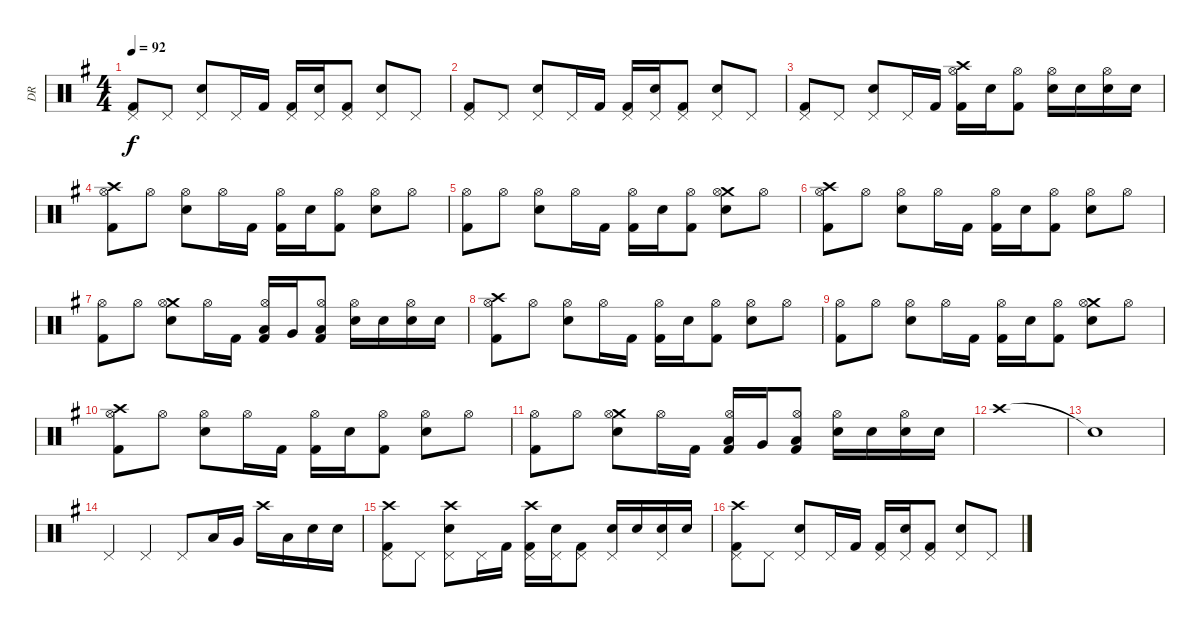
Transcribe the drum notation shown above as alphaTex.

\track ("DR" "DR") {instrument percussion}
\staff {score}
\articulation defaults
\ts (4 4)
\tempo 92
\clef neutral
\ks g
("Pedal Hi-Hat (hit)" "Kick (hit) 2").8{dy f} "Pedal Hi-Hat (hit)".8 ("Pedal Hi-Hat (hit)" "Electric Snare (hit)").8 "Pedal Hi-Hat (hit)".16 "Kick (hit) 2".16 ("Pedal Hi-Hat (hit)" "Kick (hit) 2").16 ("Pedal Hi-Hat (hit)" "Electric Snare (hit)").16 ("Pedal Hi-Hat (hit)" "Kick (hit) 2").8 ("Pedal Hi-Hat (hit)" "Electric Snare (hit)").8 "Pedal Hi-Hat (hit)".8 |
("Pedal Hi-Hat (hit)" "Kick (hit) 2").8 "Pedal Hi-Hat (hit)".8 ("Pedal Hi-Hat (hit)" "Electric Snare (hit)").8 "Pedal Hi-Hat (hit)".16 "Kick (hit) 2".16 ("Pedal Hi-Hat (hit)" "Kick (hit) 2").16 ("Pedal Hi-Hat (hit)" "Electric Snare (hit)").16 ("Pedal Hi-Hat (hit)" "Kick (hit) 2").8 ("Pedal Hi-Hat (hit)" "Electric Snare (hit)").8 "Pedal Hi-Hat (hit)".8 |
("Pedal Hi-Hat (hit)" "Kick (hit) 2").8 "Pedal Hi-Hat (hit)".8 ("Pedal Hi-Hat (hit)" "Electric Snare (hit)").8 "Pedal Hi-Hat (hit)".16 "Kick (hit) 2".16 ("Crash high (hit)" "Hi-Hat (open)" "Kick (hit) 2").16 "Electric Snare (hit)".16 ("Hi-Hat (open)" "Kick (hit) 2").8 ("Hi-Hat (open)" "Electric Snare (hit)").16 "Electric Snare (hit)".16 ("Hi-Hat (open)" "Electric Snare (hit)").16 "Electric Snare (hit)".16 |
("Crash high (hit)" "Hi-Hat (open)" "Kick (hit) 2").8 "Hi-Hat (open)".8 ("Hi-Hat (open)" "Electric Snare (hit)").8 "Hi-Hat (open)".16 "Kick (hit) 2".16 ("Hi-Hat (open)" "Kick (hit) 2").16 "Electric Snare (hit)".16 ("Hi-Hat (open)" "Kick (hit) 2").8 ("Hi-Hat (open)" "Electric Snare (hit)").8 "Hi-Hat (open)".8 |
("Hi-Hat (open)" "Kick (hit) 2").8 "Hi-Hat (open)".8 ("Hi-Hat (open)" "Electric Snare (hit)").8 "Hi-Hat (open)".16 "Kick (hit) 2".16 ("Hi-Hat (open)" "Kick (hit) 2").16 "Electric Snare (hit)".16 ("Hi-Hat (open)" "Kick (hit) 2").8 ("Crash medium (hit)" "Hi-Hat (open)" "Electric Snare (hit)").8 "Hi-Hat (open)".8 |
("Crash high (hit)" "Hi-Hat (open)" "Kick (hit) 2").8 "Hi-Hat (open)".8 ("Hi-Hat (open)" "Electric Snare (hit)").8 "Hi-Hat (open)".16 "Kick (hit) 2".16 ("Hi-Hat (open)" "Kick (hit) 2").16 "Electric Snare (hit)".16 ("Hi-Hat (open)" "Kick (hit) 2").8 ("Hi-Hat (open)" "Electric Snare (hit)").8 "Hi-Hat (open)".8 |
("Hi-Hat (open)" "Kick (hit) 2").8 "Hi-Hat (open)".8 ("Crash medium (hit)" "Hi-Hat (open)" "Electric Snare (hit)").8 "Hi-Hat (open)".16 "Kick (hit) 2".16 ("Hi-Hat (open)" "Low Tom (hit)" "Kick (hit) 2").16 "Very Low Tom (hit)".16 ("Hi-Hat (open)" "Low Floor Tom (hit)" "Kick (hit) 2").8 ("Hi-Hat (open)" "Electric Snare (hit)").16 "Electric Snare (hit)".16 ("Hi-Hat (open)" "Electric Snare (hit)").16 "Electric Snare (hit)".16 |
("Crash high (hit)" "Hi-Hat (open)" "Kick (hit) 2").8 "Hi-Hat (open)".8 ("Hi-Hat (open)" "Electric Snare (hit)").8 "Hi-Hat (open)".16 "Kick (hit) 2".16 ("Hi-Hat (open)" "Kick (hit) 2").16 "Electric Snare (hit)".16 ("Hi-Hat (open)" "Kick (hit) 2").8 ("Hi-Hat (open)" "Electric Snare (hit)").8 "Hi-Hat (open)".8 |
("Hi-Hat (open)" "Kick (hit) 2").8 "Hi-Hat (open)".8 ("Hi-Hat (open)" "Electric Snare (hit)").8 "Hi-Hat (open)".16 "Kick (hit) 2".16 ("Hi-Hat (open)" "Kick (hit) 2").16 "Electric Snare (hit)".16 ("Hi-Hat (open)" "Kick (hit) 2").8 ("Crash medium (hit)" "Hi-Hat (open)" "Electric Snare (hit)").8 "Hi-Hat (open)".8 |
("Crash high (hit)" "Hi-Hat (open)" "Kick (hit) 2").8 "Hi-Hat (open)".8 ("Hi-Hat (open)" "Electric Snare (hit)").8 "Hi-Hat (open)".16 "Kick (hit) 2".16 ("Hi-Hat (open)" "Kick (hit) 2").16 "Electric Snare (hit)".16 ("Hi-Hat (open)" "Kick (hit) 2").8 ("Hi-Hat (open)" "Electric Snare (hit)").8 "Hi-Hat (open)".8 |
("Hi-Hat (open)" "Kick (hit) 2").8 "Hi-Hat (open)".8 ("Crash medium (hit)" "Hi-Hat (open)" "Electric Snare (hit)").8 "Hi-Hat (open)".16 "Kick (hit) 2".16 ("Hi-Hat (open)" "Low Tom (hit)" "Kick (hit) 2").16 "Very Low Tom (hit)".16 ("Hi-Hat (open)" "Low Floor Tom (hit)" "Kick (hit) 2").8 ("Hi-Hat (open)" "Electric Snare (hit)").16 "Electric Snare (hit)".16 ("Hi-Hat (open)" "Electric Snare (hit)").16 "Electric Snare (hit)".16 |
"Crash high (hit)".1 |
"Snare (hit)"{t}.1 |
"Pedal Hi-Hat (hit)".4 "Pedal Hi-Hat (hit)".4 "Pedal Hi-Hat (hit)".8 "Low Tom (hit)".16 "Very Low Tom (hit)".16 "Crash high (hit)".16 "Low Floor Tom (hit)".16 "Electric Snare (hit)".16 "Electric Snare (hit)".16 |
("Crash high (hit)" "Pedal Hi-Hat (hit)" "Kick (hit) 2").8 "Pedal Hi-Hat (hit)".8 ("Crash high (hit)" "Pedal Hi-Hat (hit)" "Electric Snare (hit)").8 "Pedal Hi-Hat (hit)".16 "Kick (hit) 2".16 ("Crash high (hit)" "Pedal Hi-Hat (hit)" "Kick (hit) 2").16 ("Pedal Hi-Hat (hit)" "Electric Snare (hit)").16 ("Pedal Hi-Hat (hit)" "Kick (hit) 2").8 ("Pedal Hi-Hat (hit)" "Electric Snare (hit)").16 "Electric Snare (hit)".16 ("Pedal Hi-Hat (hit)" "Electric Snare (hit)").16 "Electric Snare (hit)".16 |
("Crash high (hit)" "Pedal Hi-Hat (hit)" "Kick (hit) 2").8 "Pedal Hi-Hat (hit)".8 ("Pedal Hi-Hat (hit)" "Electric Snare (hit)").8 "Pedal Hi-Hat (hit)".16 "Kick (hit) 2".16 ("Pedal Hi-Hat (hit)" "Kick (hit) 2").16 ("Pedal Hi-Hat (hit)" "Electric Snare (hit)").16 ("Pedal Hi-Hat (hit)" "Kick (hit) 2").8 ("Pedal Hi-Hat (hit)" "Electric Snare (hit)").8 "Pedal Hi-Hat (hit)".8
